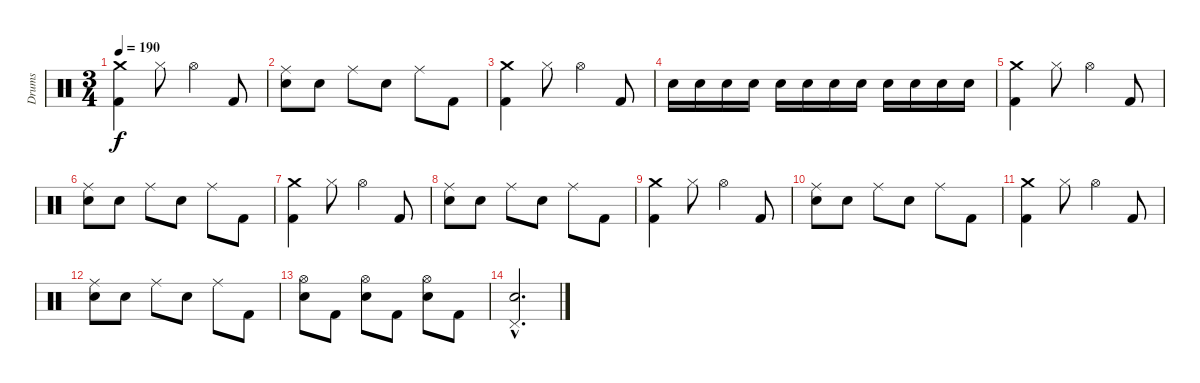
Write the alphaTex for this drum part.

\track ("Drums" "Drums") {instrument percussion}
\staff {score}
\articulation defaults
\ts (3 4)
\tempo 190
\clef neutral
\ks c
("Crash medium (hit)" "Kick (hit) 2").4{dy f} "Hi-Hat (closed)".8 "Hi-Hat (open)".4 "Kick (hit) 2".8 |
("Ride (middle)" "Snare (hit) 2").8 "Snare (hit) 2".8 "Ride (middle)".8 "Snare (hit) 2".8 "Ride (middle)".8 "Kick (hit) 2".8 |
("Crash medium (hit)" "Kick (hit) 2").4 "Hi-Hat (closed)".8 "Hi-Hat (open)".4 "Kick (hit) 2".8 |
"Snare (hit) 2".16 "Snare (hit) 2".16 "Snare (hit) 2".16 "Snare (hit) 2".16 "Snare (hit) 2".16 "Snare (hit) 2".16 "Snare (hit) 2".16 "Snare (hit) 2".16 "Snare (hit) 2".16 "Snare (hit) 2".16 "Snare (hit) 2".16 "Snare (hit) 2".16 |
("Crash medium (hit)" "Kick (hit) 2").4 "Hi-Hat (closed)".8 "Hi-Hat (open)".4 "Kick (hit) 2".8 |
("Ride (middle)" "Snare (hit) 2").8 "Snare (hit) 2".8 "Ride (middle)".8 "Snare (hit) 2".8 "Ride (middle)".8 "Kick (hit) 2".8 |
("Crash medium (hit)" "Kick (hit) 2").4 "Hi-Hat (closed)".8 "Hi-Hat (open)".4 "Kick (hit) 2".8 |
("Ride (middle)" "Snare (hit) 2").8 "Snare (hit) 2".8 "Ride (middle)".8 "Snare (hit) 2".8 "Ride (middle)".8 "Kick (hit) 2".8 |
("Crash medium (hit)" "Kick (hit) 2").4 "Hi-Hat (closed)".8 "Hi-Hat (open)".4 "Kick (hit) 2".8 |
("Ride (middle)" "Snare (hit) 2").8 "Snare (hit) 2".8 "Ride (middle)".8 "Snare (hit) 2".8 "Ride (middle)".8 "Kick (hit) 2".8 |
("Crash medium (hit)" "Kick (hit) 2").4 "Hi-Hat (closed)".8 "Hi-Hat (open)".4 "Kick (hit) 2".8 |
("Ride (middle)" "Snare (hit) 2").8 "Snare (hit) 2".8 "Ride (middle)".8 "Snare (hit) 2".8 "Ride (middle)".8 "Kick (hit) 2".8 |
("Hi-Hat (open)" "Snare (hit) 2").8 "Kick (hit) 2".8 ("Hi-Hat (open)" "Snare (hit) 2").8 "Kick (hit) 2".8 ("Hi-Hat (open)" "Snare (hit) 2").8 "Kick (hit) 2".8 |
("Pedal Hi-Hat (hit)"{hac} "Snare (hit) 2"{hac}).2{d}
